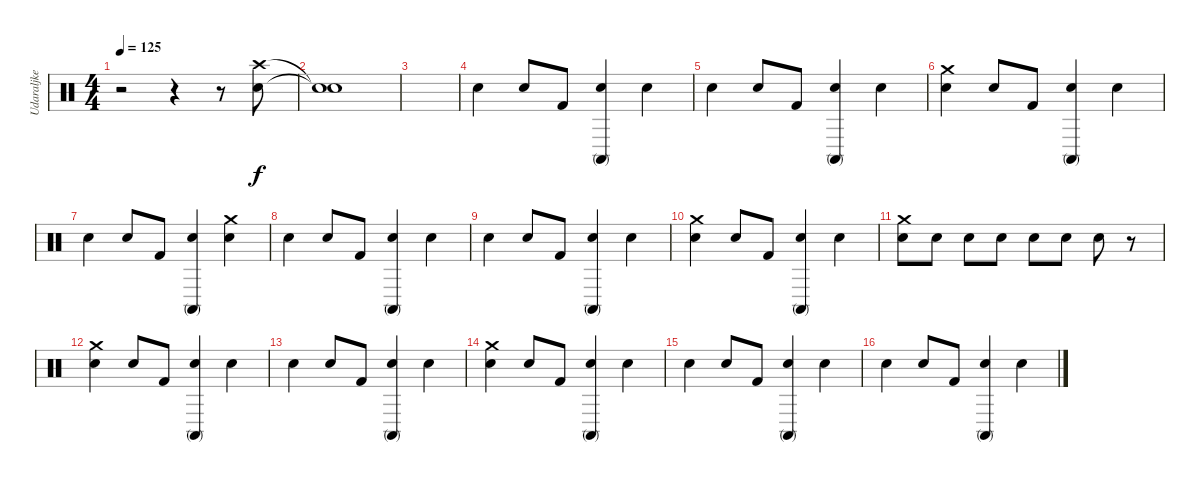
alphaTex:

\track ("Udaraljke" "Udaraljke") {instrument percussion}
\staff {score}
\articulation defaults
\ts (4 4)
\tempo 125
\clef neutral
\ks c
r.2{dy f} r.4 r.8 ("Electric Snare (hit)" "Crash high (hit)").8 |
("Snare (hit)"{t} "Snare (hit)"{t}).1 |
|
"Electric Snare (hit)".4 "Electric Snare (hit)".8 "Kick (hit) 2".8 ("Electric Snare (hit)" "Conga high (mute)").4 "Electric Snare (hit)".4 |
"Electric Snare (hit)".4 "Electric Snare (hit)".8 "Kick (hit) 2".8 ("Electric Snare (hit)" "Conga high (mute)").4 "Electric Snare (hit)".4 |
("Electric Snare (hit)" "Crash medium (hit)").4 "Electric Snare (hit)".8 "Kick (hit) 2".8 ("Electric Snare (hit)" "Conga high (mute)").4 "Electric Snare (hit)".4 |
"Electric Snare (hit)".4 "Electric Snare (hit)".8 "Kick (hit) 2".8 ("Electric Snare (hit)" "Conga high (mute)").4 ("Electric Snare (hit)" "Crash medium (hit)").4 |
"Electric Snare (hit)".4 "Electric Snare (hit)".8 "Kick (hit) 2".8 ("Electric Snare (hit)" "Conga high (mute)").4 "Electric Snare (hit)".4 |
"Electric Snare (hit)".4 "Electric Snare (hit)".8 "Kick (hit) 2".8 ("Electric Snare (hit)" "Conga high (mute)").4 "Electric Snare (hit)".4 |
("Electric Snare (hit)" "Crash medium (hit)").4 "Electric Snare (hit)".8 "Kick (hit) 2".8 ("Electric Snare (hit)" "Conga high (mute)").4 "Electric Snare (hit)".4 |
("Snare (hit) 2" "Crash medium (hit)").8 "Snare (hit) 2".8 "Snare (hit) 2".8 "Snare (hit) 2".8 "Electric Snare (hit)".8 "Electric Snare (hit)".8 "Electric Snare (hit)".8 r.8 |
("Electric Snare (hit)" "Crash medium (hit)").4 "Electric Snare (hit)".8 "Kick (hit) 2".8 ("Electric Snare (hit)" "Conga high (mute)").4 "Electric Snare (hit)".4 |
"Electric Snare (hit)".4 "Electric Snare (hit)".8 "Kick (hit) 2".8 ("Electric Snare (hit)" "Conga high (mute)").4 "Electric Snare (hit)".4 |
("Electric Snare (hit)" "Crash medium (hit)").4 "Electric Snare (hit)".8 "Kick (hit) 2".8 ("Electric Snare (hit)" "Conga high (mute)").4 "Electric Snare (hit)".4 |
"Electric Snare (hit)".4 "Electric Snare (hit)".8 "Kick (hit) 2".8 ("Electric Snare (hit)" "Conga high (mute)").4 "Electric Snare (hit)".4 |
"Electric Snare (hit)".4 "Electric Snare (hit)".8 "Kick (hit) 2".8 ("Electric Snare (hit)" "Conga high (mute)").4 "Electric Snare (hit)".4
